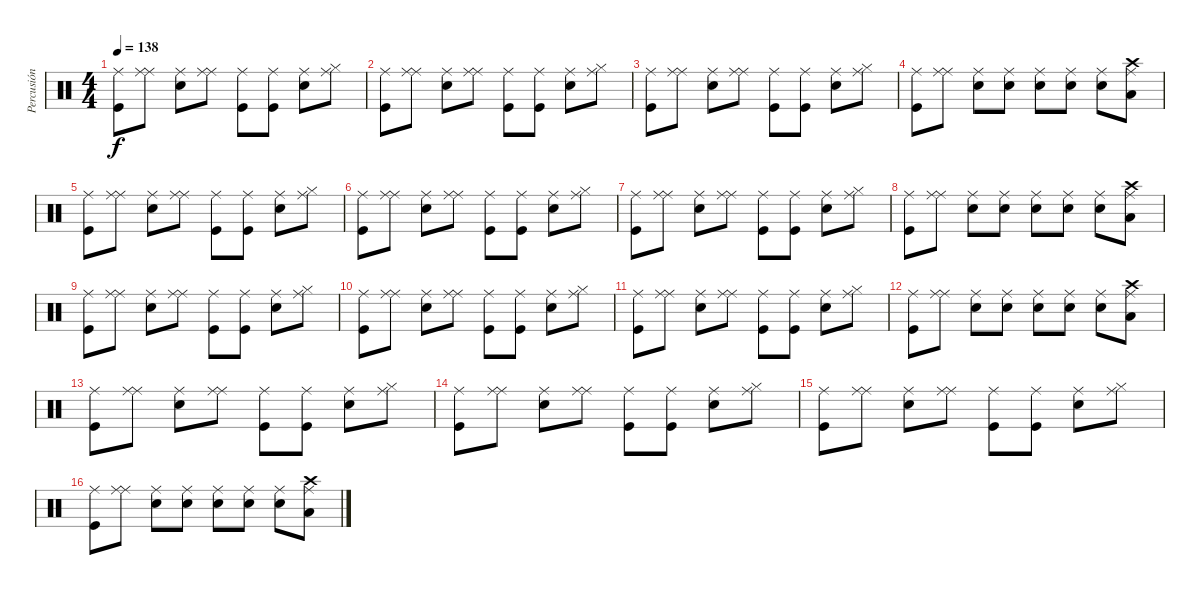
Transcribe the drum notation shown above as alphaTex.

\track ("Percusión" "Percusión") {instrument percussion}
\staff {score}
\articulation defaults
\ts (4 4)
\tempo 138
\clef neutral
\ks c
("Ride (middle)" "Kick (hit)").8{dy f} ("Ride (middle)" "Ride (middle)").8 ("Ride (middle)" "Snare (hit) 2").8 ("Ride (middle)" "Ride (middle)").8 ("Ride (middle)" "Kick (hit)").8 ("Ride (middle)" "Kick (hit)").8 ("Ride (middle)" "Snare (hit) 2").8 ("Ride (middle)" "Hi-Hat (closed)").8 |
("Ride (middle)" "Kick (hit)").8 ("Ride (middle)" "Ride (middle)").8 ("Ride (middle)" "Snare (hit) 2").8 ("Ride (middle)" "Ride (middle)").8 ("Ride (middle)" "Kick (hit)").8 ("Ride (middle)" "Kick (hit)").8 ("Ride (middle)" "Snare (hit) 2").8 ("Ride (middle)" "Hi-Hat (closed)").8 |
("Ride (middle)" "Kick (hit)").8 ("Ride (middle)" "Ride (middle)").8 ("Ride (middle)" "Snare (hit) 2").8 ("Ride (middle)" "Ride (middle)").8 ("Ride (middle)" "Kick (hit)").8 ("Ride (middle)" "Kick (hit)").8 ("Ride (middle)" "Snare (hit) 2").8 ("Ride (middle)" "Hi-Hat (closed)").8 |
("Ride (middle)" "Kick (hit)").8 ("Ride (middle)" "Ride (middle)").8 ("Ride (middle)" "Snare (hit) 2").8 ("Ride (middle)" "Snare (hit) 2").8 ("Ride (middle)" "Snare (hit) 2").8 ("Ride (middle)" "Snare (hit) 2").8 ("Ride (middle)" "Snare (hit) 2").8 ("Ride (middle)" "Low Tom (hit)" "Crash high (hit)").8 |
("Ride (middle)" "Kick (hit)").8 ("Ride (middle)" "Ride (middle)").8 ("Ride (middle)" "Snare (hit) 2").8 ("Ride (middle)" "Ride (middle)").8 ("Ride (middle)" "Kick (hit)").8 ("Ride (middle)" "Kick (hit)").8 ("Ride (middle)" "Snare (hit) 2").8 ("Ride (middle)" "Hi-Hat (closed)").8 |
("Ride (middle)" "Kick (hit)").8 ("Ride (middle)" "Ride (middle)").8 ("Ride (middle)" "Snare (hit) 2").8 ("Ride (middle)" "Ride (middle)").8 ("Ride (middle)" "Kick (hit)").8 ("Ride (middle)" "Kick (hit)").8 ("Ride (middle)" "Snare (hit) 2").8 ("Ride (middle)" "Hi-Hat (closed)").8 |
("Ride (middle)" "Kick (hit)").8 ("Ride (middle)" "Ride (middle)").8 ("Ride (middle)" "Snare (hit) 2").8 ("Ride (middle)" "Ride (middle)").8 ("Ride (middle)" "Kick (hit)").8 ("Ride (middle)" "Kick (hit)").8 ("Ride (middle)" "Snare (hit) 2").8 ("Ride (middle)" "Hi-Hat (closed)").8 |
("Ride (middle)" "Kick (hit)").8 ("Ride (middle)" "Ride (middle)").8 ("Ride (middle)" "Snare (hit) 2").8 ("Ride (middle)" "Snare (hit) 2").8 ("Ride (middle)" "Snare (hit) 2").8 ("Ride (middle)" "Snare (hit) 2").8 ("Ride (middle)" "Snare (hit) 2").8 ("Ride (middle)" "Low Tom (hit)" "Crash high (hit)").8 |
("Ride (middle)" "Kick (hit)").8 ("Ride (middle)" "Ride (middle)").8 ("Ride (middle)" "Snare (hit) 2").8 ("Ride (middle)" "Ride (middle)").8 ("Ride (middle)" "Kick (hit)").8 ("Ride (middle)" "Kick (hit)").8 ("Ride (middle)" "Snare (hit) 2").8 ("Ride (middle)" "Hi-Hat (closed)").8 |
("Ride (middle)" "Kick (hit)").8 ("Ride (middle)" "Ride (middle)").8 ("Ride (middle)" "Snare (hit) 2").8 ("Ride (middle)" "Ride (middle)").8 ("Ride (middle)" "Kick (hit)").8 ("Ride (middle)" "Kick (hit)").8 ("Ride (middle)" "Snare (hit) 2").8 ("Ride (middle)" "Hi-Hat (closed)").8 |
("Ride (middle)" "Kick (hit)").8 ("Ride (middle)" "Ride (middle)").8 ("Ride (middle)" "Snare (hit) 2").8 ("Ride (middle)" "Ride (middle)").8 ("Ride (middle)" "Kick (hit)").8 ("Ride (middle)" "Kick (hit)").8 ("Ride (middle)" "Snare (hit) 2").8 ("Ride (middle)" "Hi-Hat (closed)").8 |
("Ride (middle)" "Kick (hit)").8 ("Ride (middle)" "Ride (middle)").8 ("Ride (middle)" "Snare (hit) 2").8 ("Ride (middle)" "Snare (hit) 2").8 ("Ride (middle)" "Snare (hit) 2").8 ("Ride (middle)" "Snare (hit) 2").8 ("Ride (middle)" "Snare (hit) 2").8 ("Ride (middle)" "Low Tom (hit)" "Crash high (hit)").8 |
("Ride (middle)" "Kick (hit)").8 ("Ride (middle)" "Ride (middle)").8 ("Ride (middle)" "Snare (hit) 2").8 ("Ride (middle)" "Ride (middle)").8 ("Ride (middle)" "Kick (hit)").8 ("Ride (middle)" "Kick (hit)").8 ("Ride (middle)" "Snare (hit) 2").8 ("Ride (middle)" "Hi-Hat (closed)").8 |
("Ride (middle)" "Kick (hit)").8 ("Ride (middle)" "Ride (middle)").8 ("Ride (middle)" "Snare (hit) 2").8 ("Ride (middle)" "Ride (middle)").8 ("Ride (middle)" "Kick (hit)").8 ("Ride (middle)" "Kick (hit)").8 ("Ride (middle)" "Snare (hit) 2").8 ("Ride (middle)" "Hi-Hat (closed)").8 |
("Ride (middle)" "Kick (hit)").8 ("Ride (middle)" "Ride (middle)").8 ("Ride (middle)" "Snare (hit) 2").8 ("Ride (middle)" "Ride (middle)").8 ("Ride (middle)" "Kick (hit)").8 ("Ride (middle)" "Kick (hit)").8 ("Ride (middle)" "Snare (hit) 2").8 ("Ride (middle)" "Hi-Hat (closed)").8 |
("Ride (middle)" "Kick (hit)").8 ("Ride (middle)" "Ride (middle)").8 ("Ride (middle)" "Snare (hit) 2").8 ("Ride (middle)" "Snare (hit) 2").8 ("Ride (middle)" "Snare (hit) 2").8 ("Ride (middle)" "Snare (hit) 2").8 ("Ride (middle)" "Snare (hit) 2").8 ("Ride (middle)" "Low Tom (hit)" "Crash high (hit)").8
